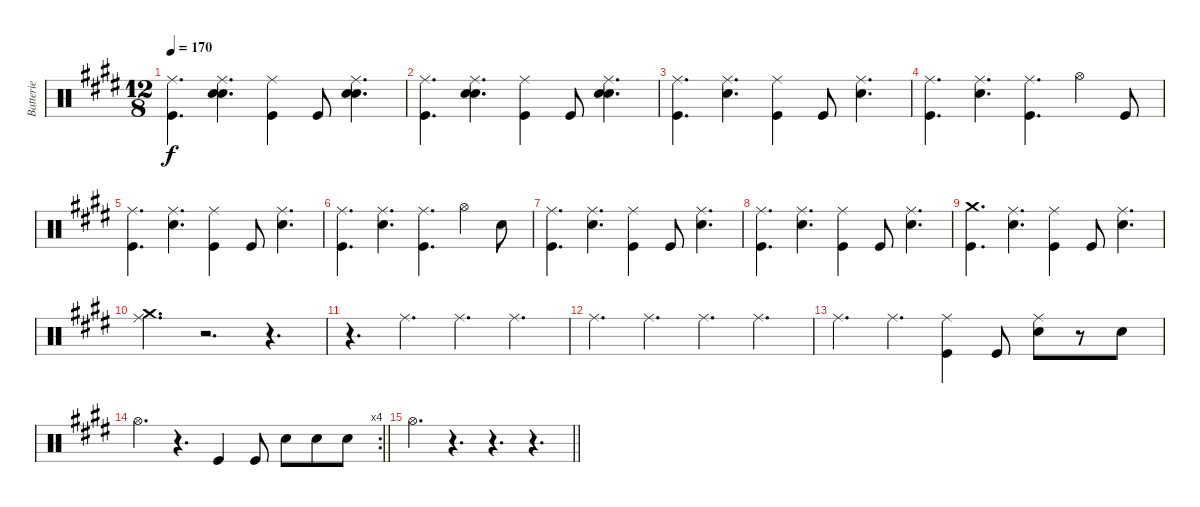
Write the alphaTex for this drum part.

\track ("Batterie" "Batterie") {instrument percussion}
\staff {score}
\articulation defaults
\ts (12 8)
\tempo 170
\clef neutral
\ks e
("Kick (hit)" "Ride (middle)").4{d dy f} ("Snare (hit) 2" "Ride (middle)" "Hand Clap (hit)").4{d} ("Kick (hit)" "Ride (middle)").4 "Kick (hit)".8 ("Snare (hit) 2" "Ride (middle)" "Hand Clap (hit)").4{d} |
("Kick (hit)" "Ride (middle)").4{d} ("Snare (hit) 2" "Ride (middle)" "Hand Clap (hit)").4{d} ("Kick (hit)" "Ride (middle)").4 "Kick (hit)".8 ("Snare (hit) 2" "Ride (middle)" "Hand Clap (hit)").4{d} |
("Kick (hit)" "Ride (middle)").4{d} ("Snare (hit) 2" "Ride (middle)").4{d} ("Kick (hit)" "Ride (middle)").4 "Kick (hit)".8 ("Snare (hit) 2" "Ride (middle)").4{d} |
("Kick (hit)" "Ride (middle)").4{d} ("Snare (hit) 2" "Ride (middle)").4{d} ("Kick (hit)" "Ride (middle)").4{d} "Hi-Hat (open)".4 "Kick (hit)".8 |
("Kick (hit)" "Ride (middle)").4{d} ("Snare (hit) 2" "Ride (middle)").4{d} ("Kick (hit)" "Ride (middle)").4 "Kick (hit)".8 ("Snare (hit) 2" "Ride (middle)").4{d} |
("Kick (hit)" "Ride (middle)").4{d} ("Snare (hit) 2" "Ride (middle)").4{d} ("Kick (hit)" "Ride (middle)").4{d} "Hi-Hat (open)".4 "Snare (hit) 2".8 |
("Kick (hit)" "Ride (middle)").4{d} ("Snare (hit) 2" "Ride (middle)").4{d} ("Kick (hit)" "Ride (middle)").4 "Kick (hit)".8 ("Snare (hit) 2" "Ride (middle)").4{d} |
("Kick (hit)" "Ride (middle)").4{d} ("Snare (hit) 2" "Ride (middle)").4{d} ("Kick (hit)" "Ride (middle)").4 "Kick (hit)".8 ("Snare (hit) 2" "Ride (middle)").4{d} |
("Kick (hit)" "Crash medium (hit)").4{d} ("Snare (hit) 2" "Ride (middle)").4{d} ("Kick (hit)" "Ride (middle)").4 "Kick (hit)".8 ("Snare (hit) 2" "Ride (middle)").4{d} |
("Crash medium (hit)" "Ride (middle)").4{d} r.2{d} r.4{d} |
r.4{d} "Ride (middle)".4{d} "Ride (middle)".4{d} "Ride (middle)".4{d} |
"Ride (middle)".4{d} "Ride (middle)".4{d} "Ride (middle)".4{d} "Ride (middle)".4{d} |
"Ride (middle)".4{d} "Ride (middle)".4{d} ("Kick (hit)" "Ride (middle)").4 "Kick (hit)".8 ("Snare (hit) 2" "Ride (middle)").8 r.8 "Snare (hit) 2".8 |
\rc 4
\barLineRight lightlight "Hi-Hat (open)".4{d}
r.4{d} "Kick (hit)".4 "Kick (hit)".8 "Snare (hit) 2".8 "Snare (hit) 2".8 "Snare (hit) 2".8 |
\barLineRight lightlight "Hi-Hat (open)".4{d}
r.4{d} r.4{d} r.4{d}
